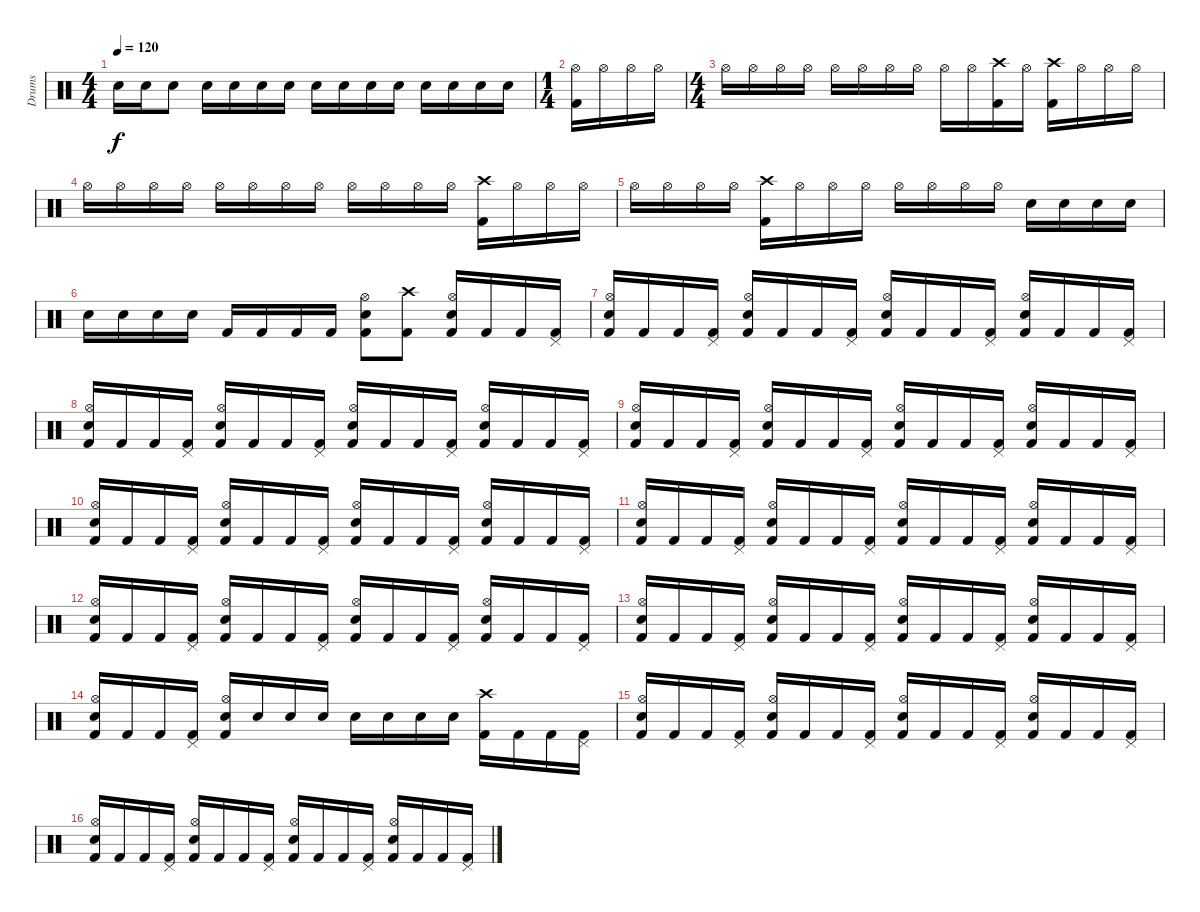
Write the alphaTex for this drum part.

\track ("Drums" "Drums") {instrument percussion}
\staff {score}
\articulation defaults
\ts (4 4)
\tempo 120
\clef neutral
\ks c "Electric Snare (hit)".16{dy f} "Electric Snare (hit)".16 "Electric Snare (hit)".8 "Electric Snare (hit)".16 "Electric Snare (hit)".16 "Electric Snare (hit)".16 "Electric Snare (hit)".16 "Snare (hit) 2".16 "Snare (hit) 2".16 "Snare (hit) 2".16 "Snare (hit) 2".16 "Electric Snare (hit)".16 "Electric Snare (hit)".16 "Electric Snare (hit)".16 "Electric Snare (hit)".16
|
\ts (1 4)
("Hi-Hat (open)" "Kick (hit) 2").16 "Hi-Hat (open)".16 "Hi-Hat (open)".16 "Hi-Hat (open)".16 |
\ts (4 4)
"Hi-Hat (open)".16 "Hi-Hat (open)".16 "Hi-Hat (open)".16 "Hi-Hat (open)".16 "Hi-Hat (open)".16 "Hi-Hat (open)".16 "Hi-Hat (open)".16 "Hi-Hat (open)".16 "Hi-Hat (open)".16 "Hi-Hat (open)".16 ("Crash high (hit)" "Kick (hit) 2").16 "Hi-Hat (open)".16 ("Crash high (hit)" "Kick (hit) 2").16 "Hi-Hat (open)".16 "Hi-Hat (open)".16 "Hi-Hat (open)".16 |
"Hi-Hat (open)".16 "Hi-Hat (open)".16 "Hi-Hat (open)".16 "Hi-Hat (open)".16 "Hi-Hat (open)".16 "Hi-Hat (open)".16 "Hi-Hat (open)".16 "Hi-Hat (open)".16 "Hi-Hat (open)".16 "Hi-Hat (open)".16 "Hi-Hat (open)".16 "Hi-Hat (open)".16 ("Crash high (hit)" "Kick (hit) 2").16 "Hi-Hat (open)".16 "Hi-Hat (open)".16 "Hi-Hat (open)".16 |
"Hi-Hat (open)".16 "Hi-Hat (open)".16 "Hi-Hat (open)".16 "Hi-Hat (open)".16 ("Crash high (hit)" "Kick (hit) 2").16 "Hi-Hat (open)".16 "Hi-Hat (open)".16 "Hi-Hat (open)".16 "Hi-Hat (open)".16 "Hi-Hat (open)".16 "Hi-Hat (open)".16 "Hi-Hat (open)".16 "Electric Snare (hit)".16 "Electric Snare (hit)".16 "Electric Snare (hit)".16 "Electric Snare (hit)".16 |
"Snare (hit) 2".16 "Snare (hit) 2".16 "Snare (hit) 2".16 "Snare (hit) 2".16 "Kick (hit) 2".16 "Kick (hit) 2".16 "Kick (hit) 2".16 "Kick (hit) 2".16 ("Hi-Hat (open)" "Snare (hit) 2" "Kick (hit) 2").8 ("Crash high (hit)" "Kick (hit) 2").8 ("Hi-Hat (open)" "Snare (hit) 2" "Kick (hit) 2").16 "Kick (hit) 2".16 "Kick (hit) 2".16 ("Pedal Hi-Hat (hit)" "Kick (hit) 2").16 |
("Hi-Hat (open)" "Snare (hit) 2" "Kick (hit) 2").16 "Kick (hit) 2".16 "Kick (hit) 2".16 ("Pedal Hi-Hat (hit)" "Kick (hit) 2").16 ("Hi-Hat (open)" "Snare (hit) 2" "Kick (hit) 2").16 "Kick (hit) 2".16 "Kick (hit) 2".16 ("Pedal Hi-Hat (hit)" "Kick (hit) 2").16 ("Hi-Hat (open)" "Snare (hit) 2" "Kick (hit) 2").16 "Kick (hit) 2".16 "Kick (hit) 2".16 ("Pedal Hi-Hat (hit)" "Kick (hit) 2").16 ("Hi-Hat (open)" "Snare (hit) 2" "Kick (hit) 2").16 "Kick (hit) 2".16 "Kick (hit) 2".16 ("Pedal Hi-Hat (hit)" "Kick (hit) 2").16 |
("Hi-Hat (open)" "Snare (hit) 2" "Kick (hit) 2").16 "Kick (hit) 2".16 "Kick (hit) 2".16 ("Pedal Hi-Hat (hit)" "Kick (hit) 2").16 ("Hi-Hat (open)" "Snare (hit) 2" "Kick (hit) 2").16 "Kick (hit) 2".16 "Kick (hit) 2".16 ("Pedal Hi-Hat (hit)" "Kick (hit) 2").16 ("Hi-Hat (open)" "Snare (hit) 2" "Kick (hit) 2").16 "Kick (hit) 2".16 "Kick (hit) 2".16 ("Pedal Hi-Hat (hit)" "Kick (hit) 2").16 ("Hi-Hat (open)" "Snare (hit) 2" "Kick (hit) 2").16 "Kick (hit) 2".16 "Kick (hit) 2".16 ("Pedal Hi-Hat (hit)" "Kick (hit) 2").16 |
("Hi-Hat (open)" "Snare (hit) 2" "Kick (hit) 2").16 "Kick (hit) 2".16 "Kick (hit) 2".16 ("Pedal Hi-Hat (hit)" "Kick (hit) 2").16 ("Hi-Hat (open)" "Snare (hit) 2" "Kick (hit) 2").16 "Kick (hit) 2".16 "Kick (hit) 2".16 ("Pedal Hi-Hat (hit)" "Kick (hit) 2").16 ("Hi-Hat (open)" "Snare (hit) 2" "Kick (hit) 2").16 "Kick (hit) 2".16 "Kick (hit) 2".16 ("Pedal Hi-Hat (hit)" "Kick (hit) 2").16 ("Hi-Hat (open)" "Snare (hit) 2" "Kick (hit) 2").16 "Kick (hit) 2".16 "Kick (hit) 2".16 ("Pedal Hi-Hat (hit)" "Kick (hit) 2").16 |
("Hi-Hat (open)" "Snare (hit) 2" "Kick (hit) 2").16 "Kick (hit) 2".16 "Kick (hit) 2".16 ("Pedal Hi-Hat (hit)" "Kick (hit) 2").16 ("Hi-Hat (open)" "Snare (hit) 2" "Kick (hit) 2").16 "Kick (hit) 2".16 "Kick (hit) 2".16 ("Pedal Hi-Hat (hit)" "Kick (hit) 2").16 ("Hi-Hat (open)" "Snare (hit) 2" "Kick (hit) 2").16 "Kick (hit) 2".16 "Kick (hit) 2".16 ("Pedal Hi-Hat (hit)" "Kick (hit) 2").16 ("Hi-Hat (open)" "Snare (hit) 2" "Kick (hit) 2").16 "Kick (hit) 2".16 "Kick (hit) 2".16 ("Pedal Hi-Hat (hit)" "Kick (hit) 2").16 |
("Hi-Hat (open)" "Snare (hit) 2" "Kick (hit) 2").16 "Kick (hit) 2".16 "Kick (hit) 2".16 ("Pedal Hi-Hat (hit)" "Kick (hit) 2").16 ("Hi-Hat (open)" "Snare (hit) 2" "Kick (hit) 2").16 "Kick (hit) 2".16 "Kick (hit) 2".16 ("Pedal Hi-Hat (hit)" "Kick (hit) 2").16 ("Hi-Hat (open)" "Snare (hit) 2" "Kick (hit) 2").16 "Kick (hit) 2".16 "Kick (hit) 2".16 ("Pedal Hi-Hat (hit)" "Kick (hit) 2").16 ("Hi-Hat (open)" "Snare (hit) 2" "Kick (hit) 2").16 "Kick (hit) 2".16 "Kick (hit) 2".16 ("Pedal Hi-Hat (hit)" "Kick (hit) 2").16 |
("Hi-Hat (open)" "Snare (hit) 2" "Kick (hit) 2").16 "Kick (hit) 2".16 "Kick (hit) 2".16 ("Pedal Hi-Hat (hit)" "Kick (hit) 2").16 ("Hi-Hat (open)" "Snare (hit) 2" "Kick (hit) 2").16 "Kick (hit) 2".16 "Kick (hit) 2".16 ("Pedal Hi-Hat (hit)" "Kick (hit) 2").16 ("Hi-Hat (open)" "Snare (hit) 2" "Kick (hit) 2").16 "Kick (hit) 2".16 "Kick (hit) 2".16 ("Pedal Hi-Hat (hit)" "Kick (hit) 2").16 ("Hi-Hat (open)" "Snare (hit) 2" "Kick (hit) 2").16 "Kick (hit) 2".16 "Kick (hit) 2".16 ("Pedal Hi-Hat (hit)" "Kick (hit) 2").16 |
("Hi-Hat (open)" "Snare (hit) 2" "Kick (hit) 2").16 "Kick (hit) 2".16 "Kick (hit) 2".16 ("Pedal Hi-Hat (hit)" "Kick (hit) 2").16 ("Hi-Hat (open)" "Snare (hit) 2" "Kick (hit) 2").16 "Kick (hit) 2".16 "Kick (hit) 2".16 ("Pedal Hi-Hat (hit)" "Kick (hit) 2").16 ("Hi-Hat (open)" "Snare (hit) 2" "Kick (hit) 2").16 "Kick (hit) 2".16 "Kick (hit) 2".16 ("Pedal Hi-Hat (hit)" "Kick (hit) 2").16 ("Hi-Hat (open)" "Snare (hit) 2" "Kick (hit) 2").16 "Kick (hit) 2".16 "Kick (hit) 2".16 ("Pedal Hi-Hat (hit)" "Kick (hit) 2").16 |
("Hi-Hat (open)" "Snare (hit) 2" "Kick (hit) 2").16 "Kick (hit) 2".16 "Kick (hit) 2".16 ("Pedal Hi-Hat (hit)" "Kick (hit) 2").16 ("Hi-Hat (open)" "Electric Snare (hit)" "Kick (hit) 2").16 "Electric Snare (hit)".16 "Electric Snare (hit)".16 "Electric Snare (hit)".16 "Snare (hit) 2".16 "Snare (hit) 2".16 "Snare (hit) 2".16 "Snare (hit) 2".16 ("Crash high (hit)" "Kick (hit) 2").16 "Kick (hit) 2".16 "Kick (hit) 2".16 ("Pedal Hi-Hat (hit)" "Kick (hit) 2").16 |
("Hi-Hat (open)" "Snare (hit) 2" "Kick (hit) 2").16 "Kick (hit) 2".16 "Kick (hit) 2".16 ("Pedal Hi-Hat (hit)" "Kick (hit) 2").16 ("Hi-Hat (open)" "Snare (hit) 2" "Kick (hit) 2").16 "Kick (hit) 2".16 "Kick (hit) 2".16 ("Pedal Hi-Hat (hit)" "Kick (hit) 2").16 ("Hi-Hat (open)" "Snare (hit) 2" "Kick (hit) 2").16 "Kick (hit) 2".16 "Kick (hit) 2".16 ("Pedal Hi-Hat (hit)" "Kick (hit) 2").16 ("Hi-Hat (open)" "Snare (hit) 2" "Kick (hit) 2").16 "Kick (hit) 2".16 "Kick (hit) 2".16 ("Pedal Hi-Hat (hit)" "Kick (hit) 2").16 |
("Hi-Hat (open)" "Snare (hit) 2" "Kick (hit) 2").16 "Kick (hit) 2".16 "Kick (hit) 2".16 ("Pedal Hi-Hat (hit)" "Kick (hit) 2").16 ("Hi-Hat (open)" "Snare (hit) 2" "Kick (hit) 2").16 "Kick (hit) 2".16 "Kick (hit) 2".16 ("Pedal Hi-Hat (hit)" "Kick (hit) 2").16 ("Hi-Hat (open)" "Snare (hit) 2" "Kick (hit) 2").16 "Kick (hit) 2".16 "Kick (hit) 2".16 ("Pedal Hi-Hat (hit)" "Kick (hit) 2").16 ("Hi-Hat (open)" "Snare (hit) 2" "Kick (hit) 2").16 "Kick (hit) 2".16 "Kick (hit) 2".16 ("Pedal Hi-Hat (hit)" "Kick (hit) 2").16
